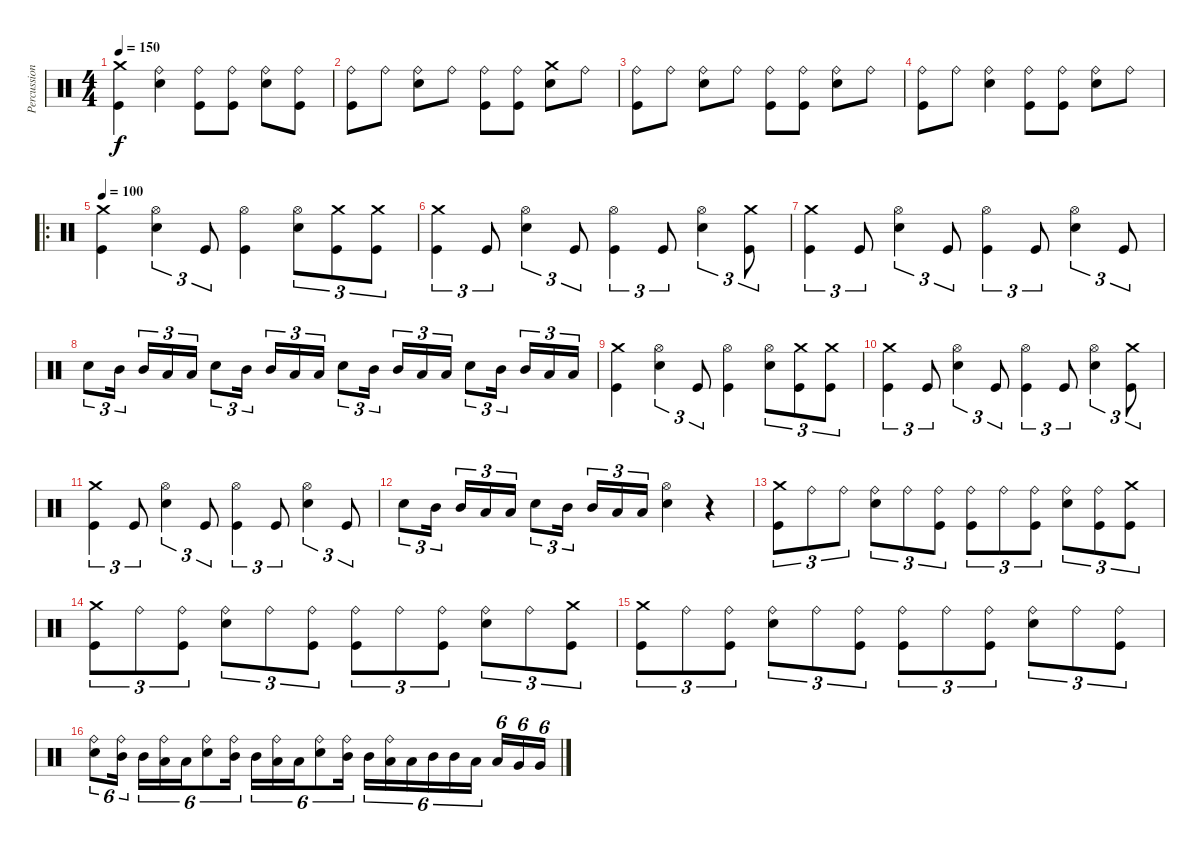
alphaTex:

\track ("Percussions" "Percussion") {instrument percussion}
\staff {score}
\articulation defaults
\ts (4 4)
\tempo 150
\clef neutral
\ks c
("Kick (hit)" "Crash medium (hit)").4{dy f} ("Electric Snare (hit)" "Ride (bell)").4 ("Kick (hit)" "Ride (bell)").8 ("Kick (hit)" "Ride (bell)").8 ("Electric Snare (hit)" "Ride (bell)").8 ("Kick (hit)" "Ride (bell)").8 |
("Kick (hit)" "Ride (bell)").8 "Ride (bell)".8 ("Electric Snare (hit)" "Ride (bell)").8 "Ride (bell)".8 ("Kick (hit)" "Ride (bell)").8 ("Kick (hit)" "Ride (bell)").8 ("Electric Snare (hit)" "Crash medium (hit)").8 "Ride (bell)".8 |
("Kick (hit)" "Ride (bell)").8 "Ride (bell)".8 ("Electric Snare (hit)" "Ride (bell)").8 "Ride (bell)".8 ("Kick (hit)" "Ride (bell)").8 ("Kick (hit)" "Ride (bell)").8 ("Electric Snare (hit)" "Ride (bell)").8 "Ride (bell)".8 |
("Kick (hit)" "Ride (bell)").8 "Ride (bell)".8 ("Electric Snare (hit)" "Ride (bell)").4 ("Kick (hit)" "Ride (bell)").8 ("Kick (hit)" "Ride (bell)").8 ("Electric Snare (hit)" "Ride (bell)").8 "Ride (bell)".8 |
\ro
\tempo 100
("Kick (hit)" "Crash medium (hit)").4 ("Electric Snare (hit)" "Hi-Hat (open)").4{tu (3 2)} "Kick (hit)".8{tu (3 2)} ("Kick (hit)" "Hi-Hat (open)").4 ("Electric Snare (hit)" "Hi-Hat (open)").8{tu (3 2)} ("Kick (hit)" "Crash medium (hit)").8{tu (3 2)} ("Kick (hit)" "Crash medium (hit)").8{tu (3 2)} |
("Kick (hit)" "Crash medium (hit)").4{tu (3 2)} "Kick (hit)".8{tu (3 2)} ("Electric Snare (hit)" "Hi-Hat (open)").4{tu (3 2)} "Kick (hit)".8{tu (3 2)} ("Kick (hit)" "Hi-Hat (open)").4{tu (3 2)} "Kick (hit)".8{tu (3 2)} ("Electric Snare (hit)" "Hi-Hat (open)").4{tu (3 2)} ("Kick (hit)" "Crash medium (hit)").8{tu (3 2)} |
("Kick (hit)" "Crash medium (hit)").4{tu (3 2)} "Kick (hit)".8{tu (3 2)} ("Electric Snare (hit)" "Hi-Hat (open)").4{tu (3 2)} "Kick (hit)".8{tu (3 2)} ("Kick (hit)" "Hi-Hat (open)").4{tu (3 2)} "Kick (hit)".8{tu (3 2)} ("Electric Snare (hit)" "Hi-Hat (open)").4{tu (3 2)} "Kick (hit)".8{tu (3 2)} |
"Electric Snare (hit)".8{tu (3 2)} "Mid Tom (hit)".16{tu (3 2)} "Mid Tom (hit)".16{tu (3 2)} "Low Tom (hit)".16{tu (3 2)} "Low Tom (hit)".16{tu (3 2)} "Electric Snare (hit)".8{tu (3 2)} "Mid Tom (hit)".16{tu (3 2)} "Mid Tom (hit)".16{tu (3 2)} "Low Tom (hit)".16{tu (3 2)} "Low Tom (hit)".16{tu (3 2)} "Electric Snare (hit)".8{tu (3 2)} "Mid Tom (hit)".16{tu (3 2)} "Mid Tom (hit)".16{tu (3 2)} "Low Tom (hit)".16{tu (3 2)} "Low Tom (hit)".16{tu (3 2)} "Electric Snare (hit)".8{tu (3 2)} "Mid Tom (hit)".16{tu (3 2)} "Mid Tom (hit)".16{tu (3 2)} "Low Tom (hit)".16{tu (3 2)} "Low Tom (hit)".16{tu (3 2)} |
("Kick (hit)" "Crash medium (hit)").4 ("Electric Snare (hit)" "Hi-Hat (open)").4{tu (3 2)} "Kick (hit)".8{tu (3 2)} ("Kick (hit)" "Hi-Hat (open)").4 ("Electric Snare (hit)" "Hi-Hat (open)").8{tu (3 2)} ("Kick (hit)" "Crash medium (hit)").8{tu (3 2)} ("Kick (hit)" "Crash medium (hit)").8{tu (3 2)} |
("Kick (hit)" "Crash medium (hit)").4{tu (3 2)} "Kick (hit)".8{tu (3 2)} ("Electric Snare (hit)" "Hi-Hat (open)").4{tu (3 2)} "Kick (hit)".8{tu (3 2)} ("Kick (hit)" "Hi-Hat (open)").4{tu (3 2)} "Kick (hit)".8{tu (3 2)} ("Electric Snare (hit)" "Hi-Hat (open)").4{tu (3 2)} ("Kick (hit)" "Crash medium (hit)").8{tu (3 2)} |
("Kick (hit)" "Crash medium (hit)").4{tu (3 2)} "Kick (hit)".8{tu (3 2)} ("Electric Snare (hit)" "Hi-Hat (open)").4{tu (3 2)} "Kick (hit)".8{tu (3 2)} ("Kick (hit)" "Hi-Hat (open)").4{tu (3 2)} "Kick (hit)".8{tu (3 2)} ("Electric Snare (hit)" "Hi-Hat (open)").4{tu (3 2)} "Kick (hit)".8{tu (3 2)} |
"Electric Snare (hit)".8{tu (3 2)} "Mid Tom (hit)".16{tu (3 2)} "Mid Tom (hit)".16{tu (3 2)} "Low Tom (hit)".16{tu (3 2)} "Low Tom (hit)".16{tu (3 2)} "Electric Snare (hit)".8{tu (3 2)} "Mid Tom (hit)".16{tu (3 2)} "Mid Tom (hit)".16{tu (3 2)} "Low Tom (hit)".16{tu (3 2)} "Low Tom (hit)".16{tu (3 2)} ("Electric Snare (hit)" "Hi-Hat (open)").4 r.4 |
("Kick (hit)" "Crash medium (hit)").8{tu (3 2)} "Ride (bell)".8{tu (3 2)} "Ride (bell)".8{tu (3 2)} ("Electric Snare (hit)" "Ride (bell)").8{tu (3 2)} "Ride (bell)".8{tu (3 2)} ("Kick (hit)" "Ride (bell)").8{tu (3 2)} ("Kick (hit)" "Ride (bell)").8{tu (3 2)} "Ride (bell)".8{tu (3 2)} ("Kick (hit)" "Ride (bell)").8{tu (3 2)} ("Electric Snare (hit)" "Ride (bell)").8{tu (3 2)} ("Kick (hit)" "Ride (bell)").8{tu (3 2)} ("Kick (hit)" "Crash medium (hit)").8{tu (3 2)} |
("Kick (hit)" "Crash medium (hit)").8{tu (3 2)} "Ride (bell)".8{tu (3 2)} ("Kick (hit)" "Ride (bell)").8{tu (3 2)} ("Electric Snare (hit)" "Ride (bell)").8{tu (3 2)} "Ride (bell)".8{tu (3 2)} ("Kick (hit)" "Ride (bell)").8{tu (3 2)} ("Kick (hit)" "Ride (bell)").8{tu (3 2)} "Ride (bell)".8{tu (3 2)} ("Kick (hit)" "Ride (bell)").8{tu (3 2)} ("Electric Snare (hit)" "Ride (bell)").8{tu (3 2)} "Ride (bell)".8{tu (3 2)} ("Kick (hit)" "Crash medium (hit)").8{tu (3 2)} |
("Kick (hit)" "Crash medium (hit)").8{tu (3 2)} "Ride (bell)".8{tu (3 2)} ("Kick (hit)" "Ride (bell)").8{tu (3 2)} ("Electric Snare (hit)" "Ride (bell)").8{tu (3 2)} "Ride (bell)".8{tu (3 2)} ("Kick (hit)" "Ride (bell)").8{tu (3 2)} ("Kick (hit)" "Ride (bell)").8{tu (3 2)} "Ride (bell)".8{tu (3 2)} ("Kick (hit)" "Ride (bell)").8{tu (3 2)} ("Electric Snare (hit)" "Ride (bell)").8{tu (3 2)} "Ride (bell)".8{tu (3 2)} ("Kick (hit)" "Ride (bell)").8{tu (3 2)} |
("Electric Snare (hit)" "Ride (bell)").8{tu (6 4)} ("Mid Tom (hit)" "Ride (bell)").16{tu (6 4)} "Mid Tom (hit)".16{tu (6 4)} ("Low Tom (hit)" "Ride (bell)").16{tu (6 4)} "Low Tom (hit)".16{tu (6 4)} ("Electric Snare (hit)" "Ride (bell)").8{tu (6 4)} ("Mid Tom (hit)" "Ride (bell)").16{tu (6 4)} "Mid Tom (hit)".16{tu (6 4)} ("Low Tom (hit)" "Ride (bell)").16{tu (6 4)} "Low Tom (hit)".16{tu (6 4)} ("Electric Snare (hit)" "Ride (bell)").8{tu (6 4)} ("Mid Tom (hit)" "Ride (bell)").16{tu (6 4)} "Mid Tom (hit)".16{tu (6 4)} ("Low Tom (hit)" "Ride (bell)").16{tu (6 4)} "Low Tom (hit)".16{tu (6 4)} "Mid Tom (hit)".16{tu (6 4)} "Mid Tom (hit)".16{tu (6 4)} "Low Tom (hit)".16{tu (6 4)} "Low Tom (hit)".16{tu (6 4)} "Very Low Tom (hit)".16{tu (6 4)} "Very Low Tom (hit)".16{tu (6 4)}
